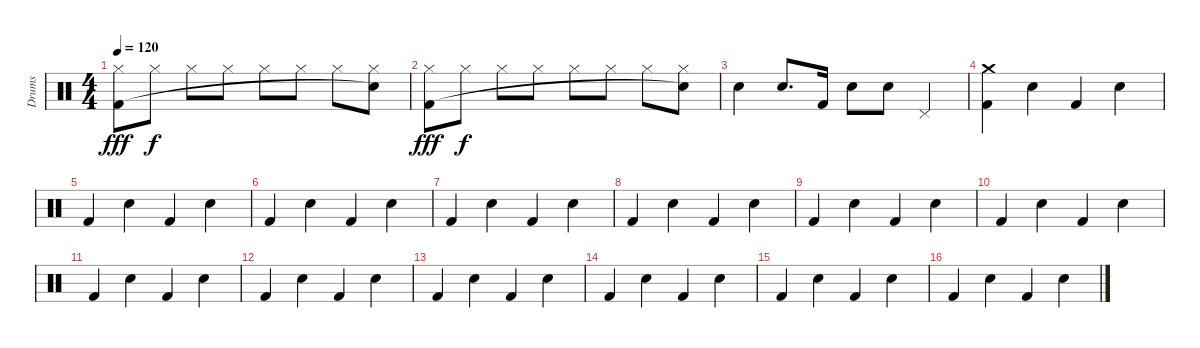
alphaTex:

\track ("Drums" "Drums") {instrument percussion}
\staff {score}
\articulation defaults
\ts (4 4)
\tempo 120
\clef neutral
\ks c
("Hi-Hat (closed)" "Kick (hit) 2").8{dy fff} "Hi-Hat (closed)".8{dy f} "Hi-Hat (closed)".8 "Hi-Hat (closed)".8 "Hi-Hat (closed)".8 "Hi-Hat (closed)".8 "Hi-Hat (closed)".8 ("Hi-Hat (closed)" "Snare (hit)"{t}).8 |
("Hi-Hat (closed)" "Kick (hit) 2").8{dy fff} "Hi-Hat (closed)".8{dy f} "Hi-Hat (closed)".8 "Hi-Hat (closed)".8 "Hi-Hat (closed)".8 "Hi-Hat (closed)".8 "Hi-Hat (closed)".8 ("Hi-Hat (closed)" "Snare (hit)"{t}).8 |
"Snare (hit) 2".4 "Snare (hit) 2".8{d} "Kick (hit) 2".16 "Snare (hit) 2".8 "Snare (hit) 2".8 "Pedal Hi-Hat (hit)".4 |
("Crash medium (hit)" "Kick (hit) 2").4 "Snare (hit) 2".4 "Kick (hit) 2".4 "Snare (hit) 2".4 |
"Kick (hit) 2".4 "Snare (hit) 2".4 "Kick (hit) 2".4 "Snare (hit) 2".4 |
"Kick (hit) 2".4 "Snare (hit) 2".4 "Kick (hit) 2".4 "Snare (hit) 2".4 |
"Kick (hit) 2".4 "Snare (hit) 2".4 "Kick (hit) 2".4 "Snare (hit) 2".4 |
"Kick (hit) 2".4 "Snare (hit) 2".4 "Kick (hit) 2".4 "Snare (hit) 2".4 |
"Kick (hit) 2".4 "Snare (hit) 2".4 "Kick (hit) 2".4 "Snare (hit) 2".4 |
"Kick (hit) 2".4 "Snare (hit) 2".4 "Kick (hit) 2".4 "Snare (hit) 2".4 |
"Kick (hit) 2".4 "Snare (hit) 2".4 "Kick (hit) 2".4 "Snare (hit) 2".4 |
"Kick (hit) 2".4 "Snare (hit) 2".4 "Kick (hit) 2".4 "Snare (hit) 2".4 |
"Kick (hit) 2".4 "Snare (hit) 2".4 "Kick (hit) 2".4 "Snare (hit) 2".4 |
"Kick (hit) 2".4 "Snare (hit) 2".4 "Kick (hit) 2".4 "Snare (hit) 2".4 |
"Kick (hit) 2".4 "Snare (hit) 2".4 "Kick (hit) 2".4 "Snare (hit) 2".4 |
"Kick (hit) 2".4 "Snare (hit) 2".4 "Kick (hit) 2".4 "Snare (hit) 2".4
